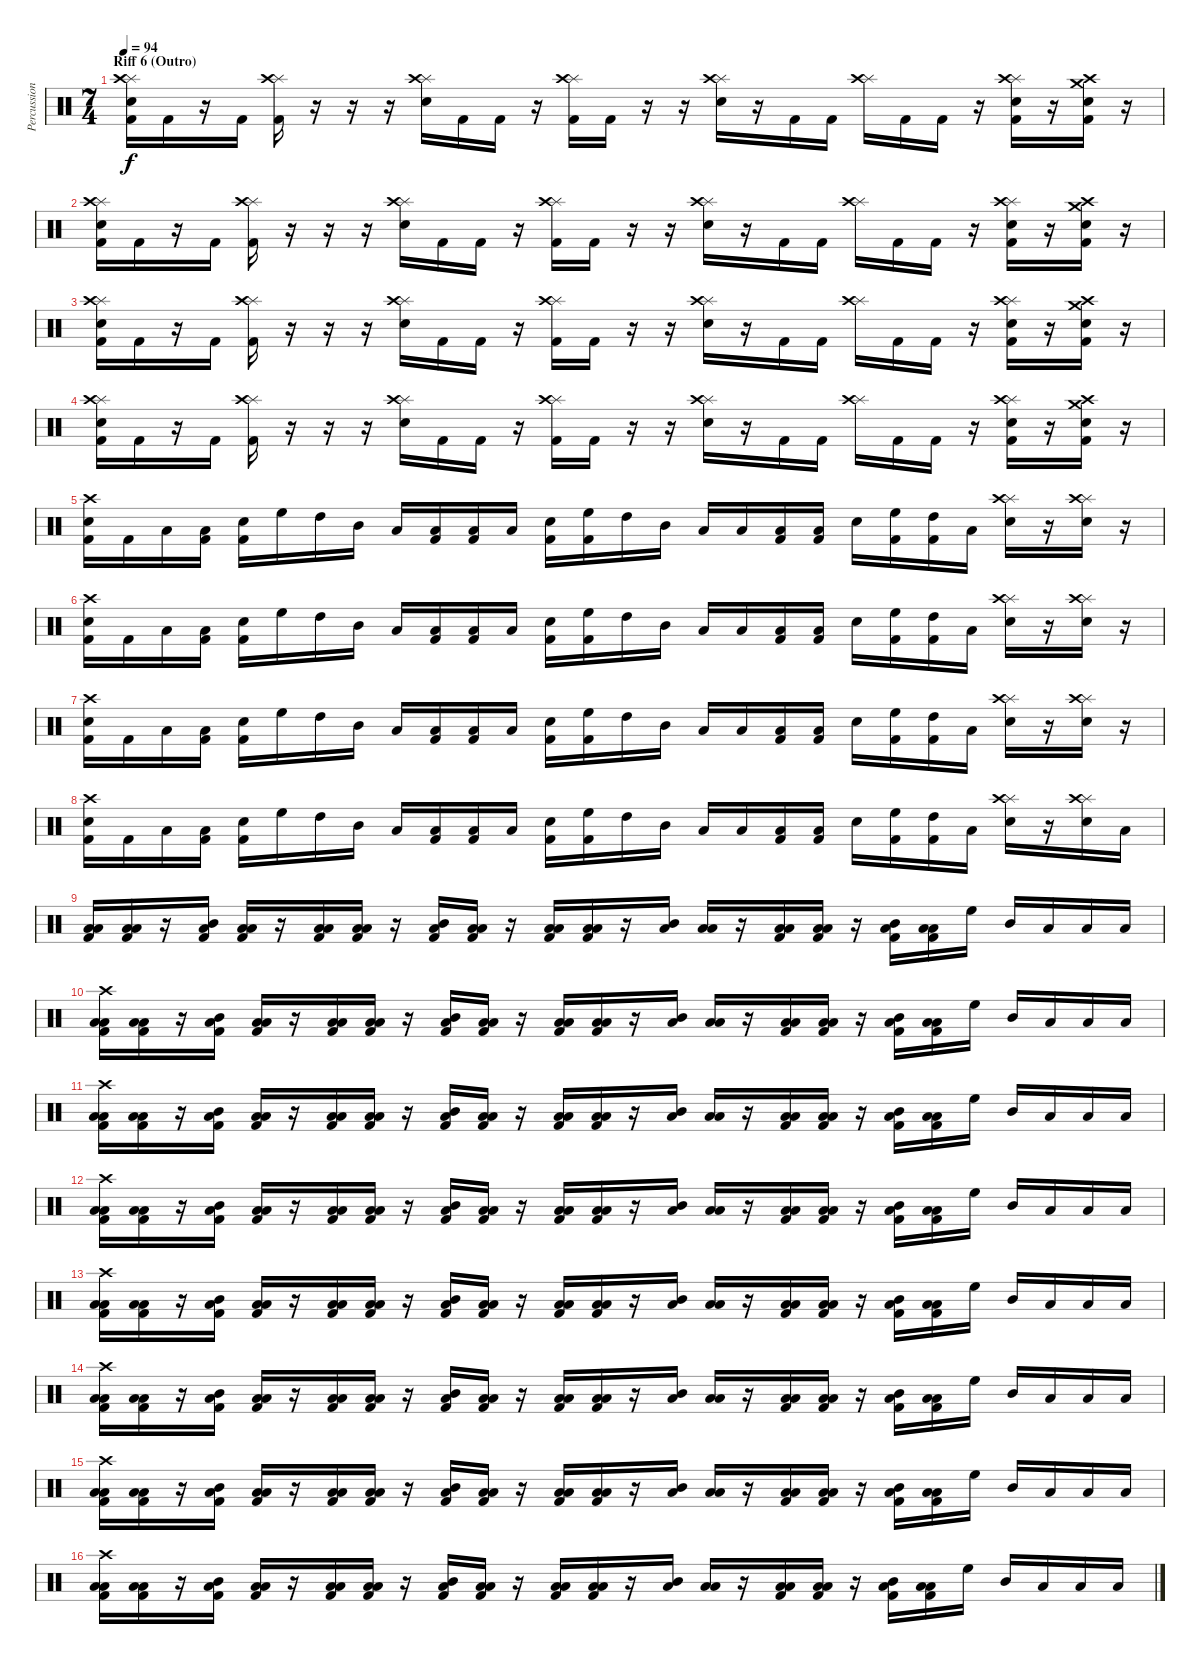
\track ("Percussion" "Percussion") {instrument percussion}
\staff {score}
\articulation defaults
\ts (7 4)
\section ("" "Riff 6 (Outro)")
\tempo 94
\clef neutral
\ks c
("Splash (hit)" "Crash high (hit)" "Electric Snare (hit)" "Kick (hit) 2").16{dy f} "Kick (hit) 2".16 r.16 "Kick (hit) 2".16 ("Splash (hit)" "Crash high (hit)" "Kick (hit) 2").16 r.16 r.16 r.16 ("Splash (hit)" "Crash high (hit)" "Electric Snare (hit)").16 "Kick (hit) 2".16 "Kick (hit) 2".16 r.16 ("Splash (hit)" "Crash high (hit)" "Kick (hit) 2").16 "Kick (hit) 2".16 r.16 r.16 ("Splash (hit)" "Crash high (hit)" "Electric Snare (hit)").16 r.16 "Kick (hit) 2".16 "Kick (hit) 2".16 ("Splash (hit)" "Crash high (hit)").16 "Kick (hit) 2".16 "Kick (hit) 2".16 r.16 ("Splash (hit)" "Crash high (hit)" "Electric Snare (hit)" "Kick (hit) 2").16 r.16 ("Crash medium (hit)" "Crash high (hit)" "Electric Snare (hit)" "Kick (hit) 2").16 r.16 |
("Splash (hit)" "Crash high (hit)" "Electric Snare (hit)" "Kick (hit) 2").16 "Kick (hit) 2".16 r.16 "Kick (hit) 2".16 ("Splash (hit)" "Crash high (hit)" "Kick (hit) 2").16 r.16 r.16 r.16 ("Splash (hit)" "Crash high (hit)" "Electric Snare (hit)").16 "Kick (hit) 2".16 "Kick (hit) 2".16 r.16 ("Splash (hit)" "Crash high (hit)" "Kick (hit) 2").16 "Kick (hit) 2".16 r.16 r.16 ("Splash (hit)" "Crash high (hit)" "Electric Snare (hit)").16 r.16 "Kick (hit) 2".16 "Kick (hit) 2".16 ("Splash (hit)" "Crash high (hit)").16 "Kick (hit) 2".16 "Kick (hit) 2".16 r.16 ("Splash (hit)" "Crash high (hit)" "Electric Snare (hit)" "Kick (hit) 2").16 r.16 ("Crash medium (hit)" "Crash high (hit)" "Electric Snare (hit)" "Kick (hit) 2").16 r.16 |
("Splash (hit)" "Crash high (hit)" "Electric Snare (hit)" "Kick (hit) 2").16 "Kick (hit) 2".16 r.16 "Kick (hit) 2".16 ("Splash (hit)" "Crash high (hit)" "Kick (hit) 2").16 r.16 r.16 r.16 ("Splash (hit)" "Crash high (hit)" "Electric Snare (hit)").16 "Kick (hit) 2".16 "Kick (hit) 2".16 r.16 ("Splash (hit)" "Crash high (hit)" "Kick (hit) 2").16 "Kick (hit) 2".16 r.16 r.16 ("Splash (hit)" "Crash high (hit)" "Electric Snare (hit)").16 r.16 "Kick (hit) 2".16 "Kick (hit) 2".16 ("Splash (hit)" "Crash high (hit)").16 "Kick (hit) 2".16 "Kick (hit) 2".16 r.16 ("Splash (hit)" "Crash high (hit)" "Electric Snare (hit)" "Kick (hit) 2").16 r.16 ("Crash medium (hit)" "Crash high (hit)" "Electric Snare (hit)" "Kick (hit) 2").16 r.16 |
("Splash (hit)" "Crash high (hit)" "Electric Snare (hit)" "Kick (hit) 2").16 "Kick (hit) 2".16 r.16 "Kick (hit) 2".16 ("Splash (hit)" "Crash high (hit)" "Kick (hit) 2").16 r.16 r.16 r.16 ("Splash (hit)" "Crash high (hit)" "Electric Snare (hit)").16 "Kick (hit) 2".16 "Kick (hit) 2".16 r.16 ("Splash (hit)" "Crash high (hit)" "Kick (hit) 2").16 "Kick (hit) 2".16 r.16 r.16 ("Splash (hit)" "Crash high (hit)" "Electric Snare (hit)").16 r.16 "Kick (hit) 2".16 "Kick (hit) 2".16 ("Splash (hit)" "Crash high (hit)").16 "Kick (hit) 2".16 "Kick (hit) 2".16 r.16 ("Splash (hit)" "Crash high (hit)" "Electric Snare (hit)" "Kick (hit) 2").16 r.16 ("Crash medium (hit)" "Crash high (hit)" "Electric Snare (hit)" "Kick (hit) 2").16 r.16 |
("Crash high (hit)" "Electric Snare (hit)" "Kick (hit) 2").16 "Kick (hit) 2".16 "Low Tom (hit)".16 ("Low Floor Tom (hit)" "Kick (hit) 2").16 ("Electric Snare (hit)" "Kick (hit) 2").16 "High Floor Tom (hit)".16 "High Tom (hit)".16 "Mid Tom (hit)".16 "Low Tom (hit)".16 ("Low Floor Tom (hit)" "Kick (hit) 2").16 ("Low Tom (hit)" "Kick (hit) 2").16 "Low Floor Tom (hit)".16 ("Electric Snare (hit)" "Kick (hit) 2").16 ("High Floor Tom (hit)" "Kick (hit) 2").16 "High Tom (hit)".16 "Mid Tom (hit)".16 "Low Tom (hit)".16 "Low Floor Tom (hit)".16 ("Low Tom (hit)" "Kick (hit) 2").16 ("Low Floor Tom (hit)" "Kick (hit) 2").16 "Electric Snare (hit)".16 ("High Floor Tom (hit)" "Kick (hit) 2").16 ("High Tom (hit)" "Kick (hit) 2").16 "Low Tom (hit)".16 ("Splash (hit)" "Crash high (hit)" "Electric Snare (hit)").16 r.16 ("Splash (hit)" "Crash high (hit)" "Electric Snare (hit)").16 r.16 |
("Crash high (hit)" "Electric Snare (hit)" "Kick (hit) 2").16 "Kick (hit) 2".16 "Low Tom (hit)".16 ("Low Floor Tom (hit)" "Kick (hit) 2").16 ("Electric Snare (hit)" "Kick (hit) 2").16 "High Floor Tom (hit)".16 "High Tom (hit)".16 "Mid Tom (hit)".16 "Low Tom (hit)".16 ("Low Floor Tom (hit)" "Kick (hit) 2").16 ("Low Tom (hit)" "Kick (hit) 2").16 "Low Floor Tom (hit)".16 ("Electric Snare (hit)" "Kick (hit) 2").16 ("High Floor Tom (hit)" "Kick (hit) 2").16 "High Tom (hit)".16 "Mid Tom (hit)".16 "Low Tom (hit)".16 "Low Floor Tom (hit)".16 ("Low Tom (hit)" "Kick (hit) 2").16 ("Low Floor Tom (hit)" "Kick (hit) 2").16 "Electric Snare (hit)".16 ("High Floor Tom (hit)" "Kick (hit) 2").16 ("High Tom (hit)" "Kick (hit) 2").16 "Low Tom (hit)".16 ("Splash (hit)" "Crash high (hit)" "Electric Snare (hit)").16 r.16 ("Splash (hit)" "Crash high (hit)" "Electric Snare (hit)").16 r.16 |
("Crash high (hit)" "Electric Snare (hit)" "Kick (hit) 2").16{volume 13} "Kick (hit) 2".16 "Low Tom (hit)".16 ("Low Floor Tom (hit)" "Kick (hit) 2").16 ("Electric Snare (hit)" "Kick (hit) 2").16 "High Floor Tom (hit)".16 "High Tom (hit)".16 "Mid Tom (hit)".16 "Low Tom (hit)".16 ("Low Floor Tom (hit)" "Kick (hit) 2").16 ("Low Tom (hit)" "Kick (hit) 2").16 "Low Floor Tom (hit)".16 ("Electric Snare (hit)" "Kick (hit) 2").16 ("High Floor Tom (hit)" "Kick (hit) 2").16 "High Tom (hit)".16 "Mid Tom (hit)".16 "Low Tom (hit)".16 "Low Floor Tom (hit)".16 ("Low Tom (hit)" "Kick (hit) 2").16 ("Low Floor Tom (hit)" "Kick (hit) 2").16 "Electric Snare (hit)".16 ("High Floor Tom (hit)" "Kick (hit) 2").16 ("High Tom (hit)" "Kick (hit) 2").16 "Low Tom (hit)".16 ("Splash (hit)" "Crash high (hit)" "Electric Snare (hit)").16 r.16 ("Splash (hit)" "Crash high (hit)" "Electric Snare (hit)").16 r.16 |
("Crash high (hit)" "Electric Snare (hit)" "Kick (hit) 2").16 "Kick (hit) 2".16 "Low Tom (hit)".16 ("Low Floor Tom (hit)" "Kick (hit) 2").16 ("Electric Snare (hit)" "Kick (hit) 2").16 "High Floor Tom (hit)".16 "High Tom (hit)".16 "Mid Tom (hit)".16 "Low Tom (hit)".16 ("Low Floor Tom (hit)" "Kick (hit) 2").16 ("Low Tom (hit)" "Kick (hit) 2").16 "Low Floor Tom (hit)".16 ("Electric Snare (hit)" "Kick (hit) 2").16 ("High Floor Tom (hit)" "Kick (hit) 2").16 "High Tom (hit)".16 "Mid Tom (hit)".16 "Low Tom (hit)".16 "Low Floor Tom (hit)".16 ("Low Tom (hit)" "Kick (hit) 2").16 ("Low Floor Tom (hit)" "Kick (hit) 2").16 "Electric Snare (hit)".16 ("High Floor Tom (hit)" "Kick (hit) 2").16 ("High Tom (hit)" "Kick (hit) 2").16 "Low Tom (hit)".16 ("Splash (hit)" "Crash high (hit)" "Electric Snare (hit)").16 r.16 ("Splash (hit)" "Crash high (hit)" "Electric Snare (hit)").16 "Low Tom (hit)".16 |
("Low Tom (hit)" "Low Floor Tom (hit)" "Kick (hit) 2").16{volume 12} ("Low Tom (hit)" "Low Floor Tom (hit)" "Kick (hit) 2").16 r.16 ("Mid Tom (hit)" "Low Floor Tom (hit)" "Kick (hit) 2").16 ("Low Tom (hit)" "Low Floor Tom (hit)" "Kick (hit) 2").16 r.16 ("Low Tom (hit)" "Low Floor Tom (hit)" "Kick (hit) 2").16 ("Low Tom (hit)" "Low Floor Tom (hit)" "Kick (hit) 2").16 r.16 ("Mid Tom (hit)" "Low Floor Tom (hit)" "Kick (hit) 2").16 ("Low Tom (hit)" "Low Floor Tom (hit)" "Kick (hit) 2").16 r.16 ("Low Tom (hit)" "Low Floor Tom (hit)" "Kick (hit) 2").16 ("Low Tom (hit)" "Low Floor Tom (hit)" "Kick (hit) 2").16 r.16 ("Mid Tom (hit)" "Low Floor Tom (hit)").16 ("Low Tom (hit)" "Low Floor Tom (hit)").16 r.16 ("Low Tom (hit)" "Low Floor Tom (hit)" "Kick (hit) 2").16 ("Low Tom (hit)" "Low Floor Tom (hit)" "Kick (hit) 2").16 r.16 ("Mid Tom (hit)" "Low Floor Tom (hit)" "Kick (hit) 2").16 ("Low Tom (hit)" "Low Floor Tom (hit)" "Kick (hit) 2").16 "High Floor Tom (hit)".16 "Mid Tom (hit)".16 "Low Tom (hit)".16 "Low Floor Tom (hit)".16 "Low Tom (hit)".16 |
("Crash high (hit)" "Low Tom (hit)" "Low Floor Tom (hit)" "Kick (hit) 2").16 ("Low Tom (hit)" "Low Floor Tom (hit)" "Kick (hit) 2").16 r.16 ("Mid Tom (hit)" "Low Floor Tom (hit)" "Kick (hit) 2").16 ("Low Tom (hit)" "Low Floor Tom (hit)" "Kick (hit) 2").16 r.16 ("Low Tom (hit)" "Low Floor Tom (hit)" "Kick (hit) 2").16 ("Low Tom (hit)" "Low Floor Tom (hit)" "Kick (hit) 2").16 r.16 ("Mid Tom (hit)" "Low Floor Tom (hit)" "Kick (hit) 2").16 ("Low Tom (hit)" "Low Floor Tom (hit)" "Kick (hit) 2").16 r.16 ("Low Tom (hit)" "Low Floor Tom (hit)" "Kick (hit) 2").16 ("Low Tom (hit)" "Low Floor Tom (hit)" "Kick (hit) 2").16 r.16 ("Mid Tom (hit)" "Low Floor Tom (hit)").16 ("Low Tom (hit)" "Low Floor Tom (hit)").16 r.16 ("Low Tom (hit)" "Low Floor Tom (hit)" "Kick (hit) 2").16 ("Low Tom (hit)" "Low Floor Tom (hit)" "Kick (hit) 2").16 r.16 ("Mid Tom (hit)" "Low Floor Tom (hit)" "Kick (hit) 2").16 ("Low Tom (hit)" "Low Floor Tom (hit)" "Kick (hit) 2").16 "High Floor Tom (hit)".16 "Mid Tom (hit)".16 "Low Tom (hit)".16 "Low Floor Tom (hit)".16 "Low Tom (hit)".16 |
("Crash high (hit)" "Low Tom (hit)" "Low Floor Tom (hit)" "Kick (hit) 2").16{volume 9} ("Low Tom (hit)" "Low Floor Tom (hit)" "Kick (hit) 2").16 r.16 ("Mid Tom (hit)" "Low Floor Tom (hit)" "Kick (hit) 2").16 ("Low Tom (hit)" "Low Floor Tom (hit)" "Kick (hit) 2").16 r.16 ("Low Tom (hit)" "Low Floor Tom (hit)" "Kick (hit) 2").16 ("Low Tom (hit)" "Low Floor Tom (hit)" "Kick (hit) 2").16 r.16 ("Mid Tom (hit)" "Low Floor Tom (hit)" "Kick (hit) 2").16 ("Low Tom (hit)" "Low Floor Tom (hit)" "Kick (hit) 2").16 r.16 ("Low Tom (hit)" "Low Floor Tom (hit)" "Kick (hit) 2").16 ("Low Tom (hit)" "Low Floor Tom (hit)" "Kick (hit) 2").16 r.16 ("Mid Tom (hit)" "Low Floor Tom (hit)").16 ("Low Tom (hit)" "Low Floor Tom (hit)").16 r.16 ("Low Tom (hit)" "Low Floor Tom (hit)" "Kick (hit) 2").16 ("Low Tom (hit)" "Low Floor Tom (hit)" "Kick (hit) 2").16 r.16 ("Mid Tom (hit)" "Low Floor Tom (hit)" "Kick (hit) 2").16 ("Low Tom (hit)" "Low Floor Tom (hit)" "Kick (hit) 2").16 "High Floor Tom (hit)".16 "Mid Tom (hit)".16 "Low Tom (hit)".16 "Low Floor Tom (hit)".16 "Low Tom (hit)".16 |
("Crash high (hit)" "Low Tom (hit)" "Low Floor Tom (hit)" "Kick (hit) 2").16 ("Low Tom (hit)" "Low Floor Tom (hit)" "Kick (hit) 2").16 r.16 ("Mid Tom (hit)" "Low Floor Tom (hit)" "Kick (hit) 2").16 ("Low Tom (hit)" "Low Floor Tom (hit)" "Kick (hit) 2").16 r.16 ("Low Tom (hit)" "Low Floor Tom (hit)" "Kick (hit) 2").16 ("Low Tom (hit)" "Low Floor Tom (hit)" "Kick (hit) 2").16 r.16 ("Mid Tom (hit)" "Low Floor Tom (hit)" "Kick (hit) 2").16 ("Low Tom (hit)" "Low Floor Tom (hit)" "Kick (hit) 2").16 r.16 ("Low Tom (hit)" "Low Floor Tom (hit)" "Kick (hit) 2").16 ("Low Tom (hit)" "Low Floor Tom (hit)" "Kick (hit) 2").16 r.16 ("Mid Tom (hit)" "Low Floor Tom (hit)").16 ("Low Tom (hit)" "Low Floor Tom (hit)").16 r.16 ("Low Tom (hit)" "Low Floor Tom (hit)" "Kick (hit) 2").16 ("Low Tom (hit)" "Low Floor Tom (hit)" "Kick (hit) 2").16 r.16 ("Mid Tom (hit)" "Low Floor Tom (hit)" "Kick (hit) 2").16 ("Low Tom (hit)" "Low Floor Tom (hit)" "Kick (hit) 2").16 "High Floor Tom (hit)".16 "Mid Tom (hit)".16 "Low Tom (hit)".16 "Low Floor Tom (hit)".16 "Low Tom (hit)".16 |
("Crash high (hit)" "Low Tom (hit)" "Low Floor Tom (hit)" "Kick (hit) 2").16{volume 7} ("Low Tom (hit)" "Low Floor Tom (hit)" "Kick (hit) 2").16 r.16 ("Mid Tom (hit)" "Low Floor Tom (hit)" "Kick (hit) 2").16 ("Low Tom (hit)" "Low Floor Tom (hit)" "Kick (hit) 2").16 r.16 ("Low Tom (hit)" "Low Floor Tom (hit)" "Kick (hit) 2").16 ("Low Tom (hit)" "Low Floor Tom (hit)" "Kick (hit) 2").16 r.16 ("Mid Tom (hit)" "Low Floor Tom (hit)" "Kick (hit) 2").16 ("Low Tom (hit)" "Low Floor Tom (hit)" "Kick (hit) 2").16 r.16 ("Low Tom (hit)" "Low Floor Tom (hit)" "Kick (hit) 2").16 ("Low Tom (hit)" "Low Floor Tom (hit)" "Kick (hit) 2").16 r.16 ("Mid Tom (hit)" "Low Floor Tom (hit)").16 ("Low Tom (hit)" "Low Floor Tom (hit)").16 r.16 ("Low Tom (hit)" "Low Floor Tom (hit)" "Kick (hit) 2").16 ("Low Tom (hit)" "Low Floor Tom (hit)" "Kick (hit) 2").16 r.16 ("Mid Tom (hit)" "Low Floor Tom (hit)" "Kick (hit) 2").16 ("Low Tom (hit)" "Low Floor Tom (hit)" "Kick (hit) 2").16 "High Floor Tom (hit)".16 "Mid Tom (hit)".16 "Low Tom (hit)".16 "Low Floor Tom (hit)".16 "Low Tom (hit)".16 |
("Crash high (hit)" "Low Tom (hit)" "Low Floor Tom (hit)" "Kick (hit) 2").16 ("Low Tom (hit)" "Low Floor Tom (hit)" "Kick (hit) 2").16 r.16 ("Mid Tom (hit)" "Low Floor Tom (hit)" "Kick (hit) 2").16 ("Low Tom (hit)" "Low Floor Tom (hit)" "Kick (hit) 2").16 r.16 ("Low Tom (hit)" "Low Floor Tom (hit)" "Kick (hit) 2").16 ("Low Tom (hit)" "Low Floor Tom (hit)" "Kick (hit) 2").16 r.16 ("Mid Tom (hit)" "Low Floor Tom (hit)" "Kick (hit) 2").16 ("Low Tom (hit)" "Low Floor Tom (hit)" "Kick (hit) 2").16 r.16 ("Low Tom (hit)" "Low Floor Tom (hit)" "Kick (hit) 2").16 ("Low Tom (hit)" "Low Floor Tom (hit)" "Kick (hit) 2").16 r.16 ("Mid Tom (hit)" "Low Floor Tom (hit)").16 ("Low Tom (hit)" "Low Floor Tom (hit)").16 r.16 ("Low Tom (hit)" "Low Floor Tom (hit)" "Kick (hit) 2").16 ("Low Tom (hit)" "Low Floor Tom (hit)" "Kick (hit) 2").16 r.16 ("Mid Tom (hit)" "Low Floor Tom (hit)" "Kick (hit) 2").16 ("Low Tom (hit)" "Low Floor Tom (hit)" "Kick (hit) 2").16 "High Floor Tom (hit)".16 "Mid Tom (hit)".16 "Low Tom (hit)".16 "Low Floor Tom (hit)".16 "Low Tom (hit)".16 |
("Crash high (hit)" "Low Tom (hit)" "Low Floor Tom (hit)" "Kick (hit) 2").16{volume 3} ("Low Tom (hit)" "Low Floor Tom (hit)" "Kick (hit) 2").16 r.16 ("Mid Tom (hit)" "Low Floor Tom (hit)" "Kick (hit) 2").16 ("Low Tom (hit)" "Low Floor Tom (hit)" "Kick (hit) 2").16 r.16 ("Low Tom (hit)" "Low Floor Tom (hit)" "Kick (hit) 2").16 ("Low Tom (hit)" "Low Floor Tom (hit)" "Kick (hit) 2").16 r.16 ("Mid Tom (hit)" "Low Floor Tom (hit)" "Kick (hit) 2").16 ("Low Tom (hit)" "Low Floor Tom (hit)" "Kick (hit) 2").16 r.16 ("Low Tom (hit)" "Low Floor Tom (hit)" "Kick (hit) 2").16 ("Low Tom (hit)" "Low Floor Tom (hit)" "Kick (hit) 2").16 r.16 ("Mid Tom (hit)" "Low Floor Tom (hit)").16 ("Low Tom (hit)" "Low Floor Tom (hit)").16 r.16 ("Low Tom (hit)" "Low Floor Tom (hit)" "Kick (hit) 2").16 ("Low Tom (hit)" "Low Floor Tom (hit)" "Kick (hit) 2").16 r.16 ("Mid Tom (hit)" "Low Floor Tom (hit)" "Kick (hit) 2").16 ("Low Tom (hit)" "Low Floor Tom (hit)" "Kick (hit) 2").16 "High Floor Tom (hit)".16 "Mid Tom (hit)".16 "Low Tom (hit)".16 "Low Floor Tom (hit)".16 "Low Tom (hit)".16 |
("Crash high (hit)" "Low Tom (hit)" "Low Floor Tom (hit)" "Kick (hit) 2").16 ("Low Tom (hit)" "Low Floor Tom (hit)" "Kick (hit) 2").16 r.16 ("Mid Tom (hit)" "Low Floor Tom (hit)" "Kick (hit) 2").16 ("Low Tom (hit)" "Low Floor Tom (hit)" "Kick (hit) 2").16 r.16 ("Low Tom (hit)" "Low Floor Tom (hit)" "Kick (hit) 2").16 ("Low Tom (hit)" "Low Floor Tom (hit)" "Kick (hit) 2").16 r.16 ("Mid Tom (hit)" "Low Floor Tom (hit)" "Kick (hit) 2").16 ("Low Tom (hit)" "Low Floor Tom (hit)" "Kick (hit) 2").16 r.16 ("Low Tom (hit)" "Low Floor Tom (hit)" "Kick (hit) 2").16 ("Low Tom (hit)" "Low Floor Tom (hit)" "Kick (hit) 2").16 r.16 ("Mid Tom (hit)" "Low Floor Tom (hit)").16 ("Low Tom (hit)" "Low Floor Tom (hit)").16 r.16 ("Low Tom (hit)" "Low Floor Tom (hit)" "Kick (hit) 2").16 ("Low Tom (hit)" "Low Floor Tom (hit)" "Kick (hit) 2").16 r.16 ("Mid Tom (hit)" "Low Floor Tom (hit)" "Kick (hit) 2").16 ("Low Tom (hit)" "Low Floor Tom (hit)" "Kick (hit) 2").16 "High Floor Tom (hit)".16 "Mid Tom (hit)".16 "Low Tom (hit)".16 "Low Floor Tom (hit)".16 "Low Tom (hit)".16
